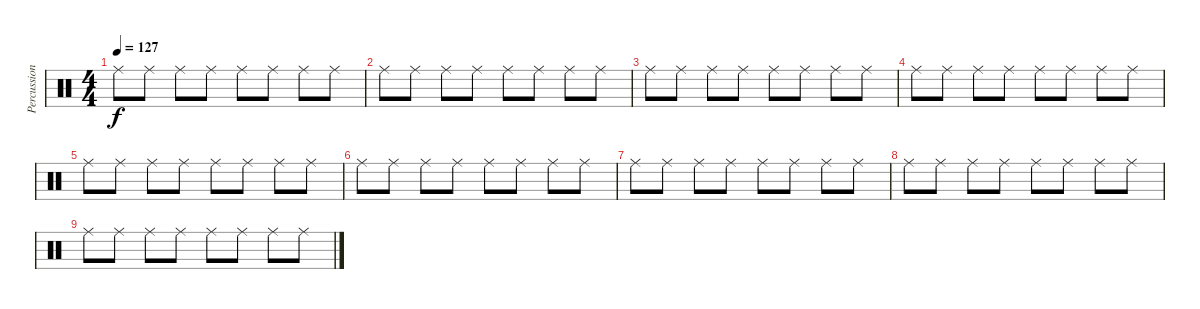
\track ("Percussion" "Percussion") {instrument percussion}
\staff {score}
\articulation defaults
\ts (4 4)
\tempo 127
\clef neutral
\ks c "Ride (middle)".8{dy f} "Ride (middle)".8 "Ride (middle)".8 "Ride (middle)".8 "Ride (middle)".8 "Ride (middle)".8 "Ride (middle)".8 "Ride (middle)".8
|
"Ride (middle)".8 "Ride (middle)".8 "Ride (middle)".8 "Ride (middle)".8 "Ride (middle)".8 "Ride (middle)".8 "Ride (middle)".8 "Ride (middle)".8 |
"Ride (middle)".8 "Ride (middle)".8 "Ride (middle)".8 "Ride (middle)".8 "Ride (middle)".8 "Ride (middle)".8 "Ride (middle)".8 "Ride (middle)".8 |
"Ride (middle)".8 "Ride (middle)".8 "Ride (middle)".8 "Ride (middle)".8 "Ride (middle)".8 "Ride (middle)".8 "Ride (middle)".8 "Ride (middle)".8 |
"Ride (middle)".8 "Ride (middle)".8 "Ride (middle)".8 "Ride (middle)".8 "Ride (middle)".8 "Ride (middle)".8 "Ride (middle)".8 "Ride (middle)".8 |
"Ride (middle)".8 "Ride (middle)".8 "Ride (middle)".8 "Ride (middle)".8 "Ride (middle)".8 "Ride (middle)".8 "Ride (middle)".8 "Ride (middle)".8 |
"Ride (middle)".8{volume 8} "Ride (middle)".8 "Ride (middle)".8 "Ride (middle)".8 "Ride (middle)".8 "Ride (middle)".8 "Ride (middle)".8 "Ride (middle)".8 |
"Ride (middle)".8{volume 3} "Ride (middle)".8 "Ride (middle)".8 "Ride (middle)".8 "Ride (middle)".8 "Ride (middle)".8 "Ride (middle)".8 "Ride (middle)".8 |
"Ride (middle)".8{volume 2} "Ride (middle)".8 "Ride (middle)".8 "Ride (middle)".8 "Ride (middle)".8 "Ride (middle)".8 "Ride (middle)".8 "Ride (middle)".8
